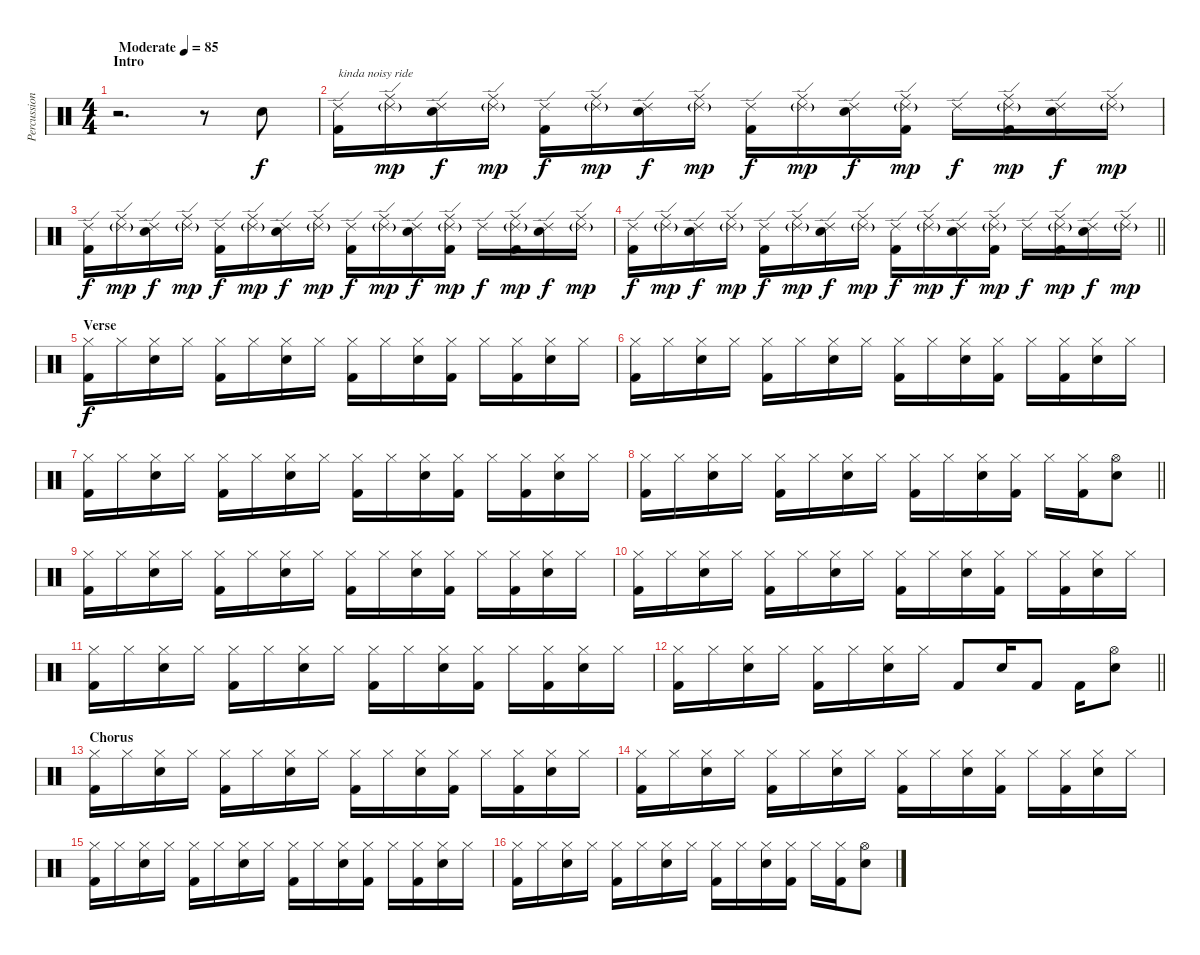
\track ("Percussion" "Percussion") {instrument percussion}
\staff {score}
\articulation defaults
\ts (4 4)
\section ("" "Intro")
\tempo (85 "Moderate")
\clef neutral
\ks c
r.2{d dy f} r.8 "Snare (hit) 2".8 |
("Ride (edge) 2" "Kick (hit) 2").16{txt "kinda noisy ride "} ("Ride (middle)" "Ride (edge) 2"{g}).16{dy mp} ("Ride (edge) 2" "Snare (hit) 2").16{dy f} ("Ride (middle)" "Ride (edge) 2"{g}).16{dy mp} ("Ride (edge) 2" "Kick (hit) 2").16{dy f} ("Ride (middle)" "Ride (edge) 2"{g}).16{dy mp} ("Ride (edge) 2" "Snare (hit) 2").16{dy f} ("Ride (middle)" "Ride (edge) 2"{g}).16{dy mp} ("Ride (edge) 2" "Kick (hit) 2").16{dy f} ("Ride (middle)" "Ride (edge) 2"{g}).16{dy mp} ("Ride (edge) 2" "Snare (hit) 2").16{dy f} ("Ride (middle)" "Ride (edge) 2"{g} "Kick (hit) 2").16{dy mp} "Ride (edge) 2".16{dy f} ("Ride (middle)" "Ride (edge) 2"{g} "Kick (hit) 2").16{dy mp} ("Ride (edge) 2" "Snare (hit) 2").16{dy f} ("Ride (middle)" "Ride (edge) 2"{g}).16{dy mp} |
("Ride (edge) 2" "Kick (hit) 2").16{dy f} ("Ride (middle)" "Ride (edge) 2"{g}).16{dy mp} ("Ride (edge) 2" "Snare (hit) 2").16{dy f} ("Ride (middle)" "Ride (edge) 2"{g}).16{dy mp} ("Ride (edge) 2" "Kick (hit) 2").16{dy f} ("Ride (middle)" "Ride (edge) 2"{g}).16{dy mp} ("Ride (edge) 2" "Snare (hit) 2").16{dy f} ("Ride (middle)" "Ride (edge) 2"{g}).16{dy mp} ("Ride (edge) 2" "Kick (hit) 2").16{dy f} ("Ride (middle)" "Ride (edge) 2"{g}).16{dy mp} ("Ride (edge) 2" "Snare (hit) 2").16{dy f} ("Ride (middle)" "Ride (edge) 2"{g} "Kick (hit) 2").16{dy mp} "Ride (edge) 2".16{dy f} ("Ride (middle)" "Ride (edge) 2"{g} "Kick (hit) 2").16{dy mp} ("Ride (edge) 2" "Snare (hit) 2").16{dy f} ("Ride (middle)" "Ride (edge) 2"{g}).16{dy mp} |
\barLineRight lightlight
("Ride (edge) 2" "Kick (hit) 2").16{dy f} ("Ride (middle)" "Ride (edge) 2"{g}).16{dy mp} ("Ride (edge) 2" "Snare (hit) 2").16{dy f} ("Ride (middle)" "Ride (edge) 2"{g}).16{dy mp} ("Ride (edge) 2" "Kick (hit) 2").16{dy f} ("Ride (middle)" "Ride (edge) 2"{g}).16{dy mp} ("Ride (edge) 2" "Snare (hit) 2").16{dy f} ("Ride (middle)" "Ride (edge) 2"{g}).16{dy mp} ("Ride (edge) 2" "Kick (hit) 2").16{dy f} ("Ride (middle)" "Ride (edge) 2"{g}).16{dy mp} ("Ride (edge) 2" "Snare (hit) 2").16{dy f} ("Ride (middle)" "Ride (edge) 2"{g} "Kick (hit) 2").16{dy mp} "Ride (edge) 2".16{dy f} ("Ride (middle)" "Ride (edge) 2"{g} "Kick (hit) 2").16{dy mp} ("Ride (edge) 2" "Snare (hit) 2").16{dy f} ("Ride (middle)" "Ride (edge) 2"{g}).16{dy mp} |
\section ("" "Verse")
("Hi-Hat (closed)" "Kick (hit) 2").16{dy f} "Hi-Hat (closed)".16 ("Hi-Hat (closed)" "Snare (hit) 2").16 "Hi-Hat (closed)".16 ("Hi-Hat (closed)" "Kick (hit) 2").16 "Hi-Hat (closed)".16 ("Hi-Hat (closed)" "Snare (hit) 2").16 "Hi-Hat (closed)".16 ("Hi-Hat (closed)" "Kick (hit) 2").16 "Hi-Hat (closed)".16 ("Hi-Hat (closed)" "Snare (hit) 2").16 ("Hi-Hat (closed)" "Kick (hit) 2").16 "Hi-Hat (closed)".16 ("Hi-Hat (closed)" "Kick (hit) 2").16 ("Hi-Hat (closed)" "Snare (hit) 2").16 "Hi-Hat (closed)".16 |
("Hi-Hat (closed)" "Kick (hit) 2").16 "Hi-Hat (closed)".16 ("Hi-Hat (closed)" "Snare (hit) 2").16 "Hi-Hat (closed)".16 ("Hi-Hat (closed)" "Kick (hit) 2").16 "Hi-Hat (closed)".16 ("Hi-Hat (closed)" "Snare (hit) 2").16 "Hi-Hat (closed)".16 ("Hi-Hat (closed)" "Kick (hit) 2").16 "Hi-Hat (closed)".16 ("Hi-Hat (closed)" "Snare (hit) 2").16 ("Hi-Hat (closed)" "Kick (hit) 2").16 "Hi-Hat (closed)".16 ("Hi-Hat (closed)" "Kick (hit) 2").16 ("Hi-Hat (closed)" "Snare (hit) 2").16 "Hi-Hat (closed)".16 |
("Hi-Hat (closed)" "Kick (hit) 2").16 "Hi-Hat (closed)".16 ("Hi-Hat (closed)" "Snare (hit) 2").16 "Hi-Hat (closed)".16 ("Hi-Hat (closed)" "Kick (hit) 2").16 "Hi-Hat (closed)".16 ("Hi-Hat (closed)" "Snare (hit) 2").16 "Hi-Hat (closed)".16 ("Hi-Hat (closed)" "Kick (hit) 2").16 "Hi-Hat (closed)".16 ("Hi-Hat (closed)" "Snare (hit) 2").16 ("Hi-Hat (closed)" "Kick (hit) 2").16 "Hi-Hat (closed)".16 ("Hi-Hat (closed)" "Kick (hit) 2").16 ("Hi-Hat (closed)" "Snare (hit) 2").16 "Hi-Hat (closed)".16 |
\barLineRight lightlight
("Hi-Hat (closed)" "Kick (hit) 2").16 "Hi-Hat (closed)".16 ("Hi-Hat (closed)" "Snare (hit) 2").16 "Hi-Hat (closed)".16 ("Hi-Hat (closed)" "Kick (hit) 2").16 "Hi-Hat (closed)".16 ("Hi-Hat (closed)" "Snare (hit) 2").16 "Hi-Hat (closed)".16 ("Hi-Hat (closed)" "Kick (hit) 2").16 "Hi-Hat (closed)".16 ("Hi-Hat (closed)" "Snare (hit) 2").16 ("Hi-Hat (closed)" "Kick (hit) 2").16 "Hi-Hat (closed)".16 ("Hi-Hat (closed)" "Kick (hit) 2").16 ("Hi-Hat (open)" "Snare (hit) 2").8 |
("Hi-Hat (closed)" "Kick (hit) 2").16 "Hi-Hat (closed)".16 ("Hi-Hat (closed)" "Snare (hit) 2").16 "Hi-Hat (closed)".16 ("Hi-Hat (closed)" "Kick (hit) 2").16 "Hi-Hat (closed)".16 ("Hi-Hat (closed)" "Snare (hit) 2").16 "Hi-Hat (closed)".16 ("Hi-Hat (closed)" "Kick (hit) 2").16 "Hi-Hat (closed)".16 ("Hi-Hat (closed)" "Snare (hit) 2").16 ("Hi-Hat (closed)" "Kick (hit) 2").16 "Hi-Hat (closed)".16 ("Hi-Hat (closed)" "Kick (hit) 2").16 ("Hi-Hat (closed)" "Snare (hit) 2").16 "Hi-Hat (closed)".16 |
("Hi-Hat (closed)" "Kick (hit) 2").16 "Hi-Hat (closed)".16 ("Hi-Hat (closed)" "Snare (hit) 2").16 "Hi-Hat (closed)".16 ("Hi-Hat (closed)" "Kick (hit) 2").16 "Hi-Hat (closed)".16 ("Hi-Hat (closed)" "Snare (hit) 2").16 "Hi-Hat (closed)".16 ("Hi-Hat (closed)" "Kick (hit) 2").16 "Hi-Hat (closed)".16 ("Hi-Hat (closed)" "Snare (hit) 2").16 ("Hi-Hat (closed)" "Kick (hit) 2").16 "Hi-Hat (closed)".16 ("Hi-Hat (closed)" "Kick (hit) 2").16 ("Hi-Hat (closed)" "Snare (hit) 2").16 "Hi-Hat (closed)".16 |
("Hi-Hat (closed)" "Kick (hit) 2").16 "Hi-Hat (closed)".16 ("Hi-Hat (closed)" "Snare (hit) 2").16 "Hi-Hat (closed)".16 ("Hi-Hat (closed)" "Kick (hit) 2").16 "Hi-Hat (closed)".16 ("Hi-Hat (closed)" "Snare (hit) 2").16 "Hi-Hat (closed)".16 ("Hi-Hat (closed)" "Kick (hit) 2").16 "Hi-Hat (closed)".16 ("Hi-Hat (closed)" "Snare (hit) 2").16 ("Hi-Hat (closed)" "Kick (hit) 2").16 "Hi-Hat (closed)".16 ("Hi-Hat (closed)" "Kick (hit) 2").16 ("Hi-Hat (closed)" "Snare (hit) 2").16 "Hi-Hat (closed)".16 |
\barLineRight lightlight
("Hi-Hat (closed)" "Kick (hit) 2").16 "Hi-Hat (closed)".16 ("Hi-Hat (closed)" "Snare (hit) 2").16 "Hi-Hat (closed)".16 ("Hi-Hat (closed)" "Kick (hit) 2").16 "Hi-Hat (closed)".16 ("Hi-Hat (closed)" "Snare (hit) 2").16 "Hi-Hat (closed)".16 "Kick (hit) 2".8 "Snare (hit) 2".16 "Kick (hit) 2".8 "Kick (hit) 2".16 ("Hi-Hat (open)" "Snare (hit) 2").8 |
\section ("" "Chorus")
("Hi-Hat (closed)" "Kick (hit) 2").16 "Hi-Hat (closed)".16 ("Hi-Hat (closed)" "Snare (hit) 2").16 "Hi-Hat (closed)".16 ("Hi-Hat (closed)" "Kick (hit) 2").16 "Hi-Hat (closed)".16 ("Hi-Hat (closed)" "Snare (hit) 2").16 "Hi-Hat (closed)".16 ("Hi-Hat (closed)" "Kick (hit) 2").16 "Hi-Hat (closed)".16 ("Hi-Hat (closed)" "Snare (hit) 2").16 ("Hi-Hat (closed)" "Kick (hit) 2").16 "Hi-Hat (closed)".16 ("Hi-Hat (closed)" "Kick (hit) 2").16 ("Hi-Hat (closed)" "Snare (hit) 2").16 "Hi-Hat (closed)".16 |
("Hi-Hat (closed)" "Kick (hit) 2").16 "Hi-Hat (closed)".16 ("Hi-Hat (closed)" "Snare (hit) 2").16 "Hi-Hat (closed)".16 ("Hi-Hat (closed)" "Kick (hit) 2").16 "Hi-Hat (closed)".16 ("Hi-Hat (closed)" "Snare (hit) 2").16 "Hi-Hat (closed)".16 ("Hi-Hat (closed)" "Kick (hit) 2").16 "Hi-Hat (closed)".16 ("Hi-Hat (closed)" "Snare (hit) 2").16 ("Hi-Hat (closed)" "Kick (hit) 2").16 "Hi-Hat (closed)".16 ("Hi-Hat (closed)" "Kick (hit) 2").16 ("Hi-Hat (closed)" "Snare (hit) 2").16 "Hi-Hat (closed)".16 |
("Hi-Hat (closed)" "Kick (hit) 2").16 "Hi-Hat (closed)".16 ("Hi-Hat (closed)" "Snare (hit) 2").16 "Hi-Hat (closed)".16 ("Hi-Hat (closed)" "Kick (hit) 2").16 "Hi-Hat (closed)".16 ("Hi-Hat (closed)" "Snare (hit) 2").16 "Hi-Hat (closed)".16 ("Hi-Hat (closed)" "Kick (hit) 2").16 "Hi-Hat (closed)".16 ("Hi-Hat (closed)" "Snare (hit) 2").16 ("Hi-Hat (closed)" "Kick (hit) 2").16 "Hi-Hat (closed)".16 ("Hi-Hat (closed)" "Kick (hit) 2").16 ("Hi-Hat (closed)" "Snare (hit) 2").16 "Hi-Hat (closed)".16 |
("Hi-Hat (closed)" "Kick (hit) 2").16 "Hi-Hat (closed)".16 ("Hi-Hat (closed)" "Snare (hit) 2").16 "Hi-Hat (closed)".16 ("Hi-Hat (closed)" "Kick (hit) 2").16 "Hi-Hat (closed)".16 ("Hi-Hat (closed)" "Snare (hit) 2").16 "Hi-Hat (closed)".16 ("Hi-Hat (closed)" "Kick (hit) 2").16 "Hi-Hat (closed)".16 ("Hi-Hat (closed)" "Snare (hit) 2").16 ("Hi-Hat (closed)" "Kick (hit) 2").16 "Hi-Hat (closed)".16 ("Hi-Hat (closed)" "Kick (hit) 2").16 ("Hi-Hat (open)" "Snare (hit) 2").8
